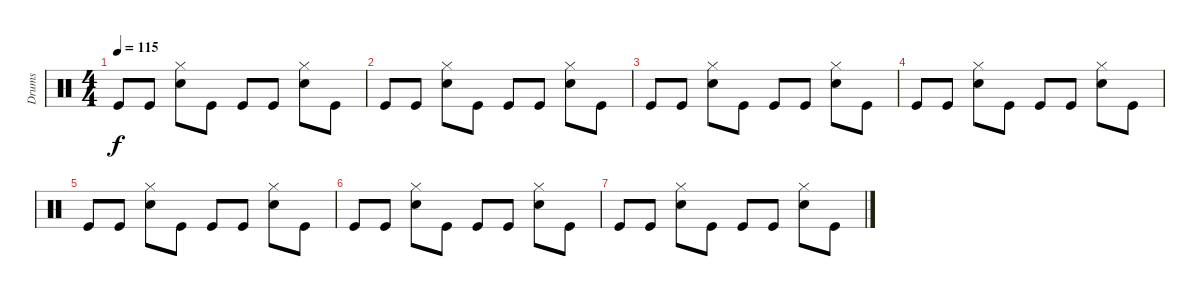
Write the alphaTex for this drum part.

\track ("Drums" "Drums") {instrument percussion}
\staff
\articulation defaults
\ts (4 4)
\tempo 115
\clef neutral
\ks c "Kick (hit)".8{dy f} "Kick (hit)".8
("Hi-Hat (closed)" "Snare (hit) 2").8 "Kick (hit)".8 "Kick (hit)".8 "Kick (hit)".8 ("Hi-Hat (closed)" "Snare (hit) 2").8 "Kick (hit)".8 |
"Kick (hit)".8 "Kick (hit)".8 ("Hi-Hat (closed)" "Snare (hit) 2").8 "Kick (hit)".8 "Kick (hit)".8 "Kick (hit)".8 ("Hi-Hat (closed)" "Snare (hit) 2").8 "Kick (hit)".8 |
"Kick (hit)".8 "Kick (hit)".8 ("Hi-Hat (closed)" "Snare (hit) 2").8 "Kick (hit)".8 "Kick (hit)".8 "Kick (hit)".8 ("Hi-Hat (closed)" "Snare (hit) 2").8 "Kick (hit)".8 |
"Kick (hit)".8 "Kick (hit)".8 ("Hi-Hat (closed)" "Snare (hit) 2").8 "Kick (hit)".8 "Kick (hit)".8 "Kick (hit)".8 ("Hi-Hat (closed)" "Snare (hit) 2").8 "Kick (hit)".8 |
"Kick (hit)".8 "Kick (hit)".8 ("Hi-Hat (closed)" "Snare (hit) 2").8 "Kick (hit)".8 "Kick (hit)".8 "Kick (hit)".8 ("Hi-Hat (closed)" "Snare (hit) 2").8 "Kick (hit)".8 |
"Kick (hit)".8 "Kick (hit)".8 ("Hi-Hat (closed)" "Snare (hit) 2").8 "Kick (hit)".8 "Kick (hit)".8 "Kick (hit)".8 ("Hi-Hat (closed)" "Snare (hit) 2").8 "Kick (hit)".8 |
"Kick (hit)".8 "Kick (hit)".8 ("Hi-Hat (closed)" "Snare (hit) 2").8 "Kick (hit)".8 "Kick (hit)".8 "Kick (hit)".8 ("Hi-Hat (closed)" "Snare (hit) 2").8 "Kick (hit)".8
